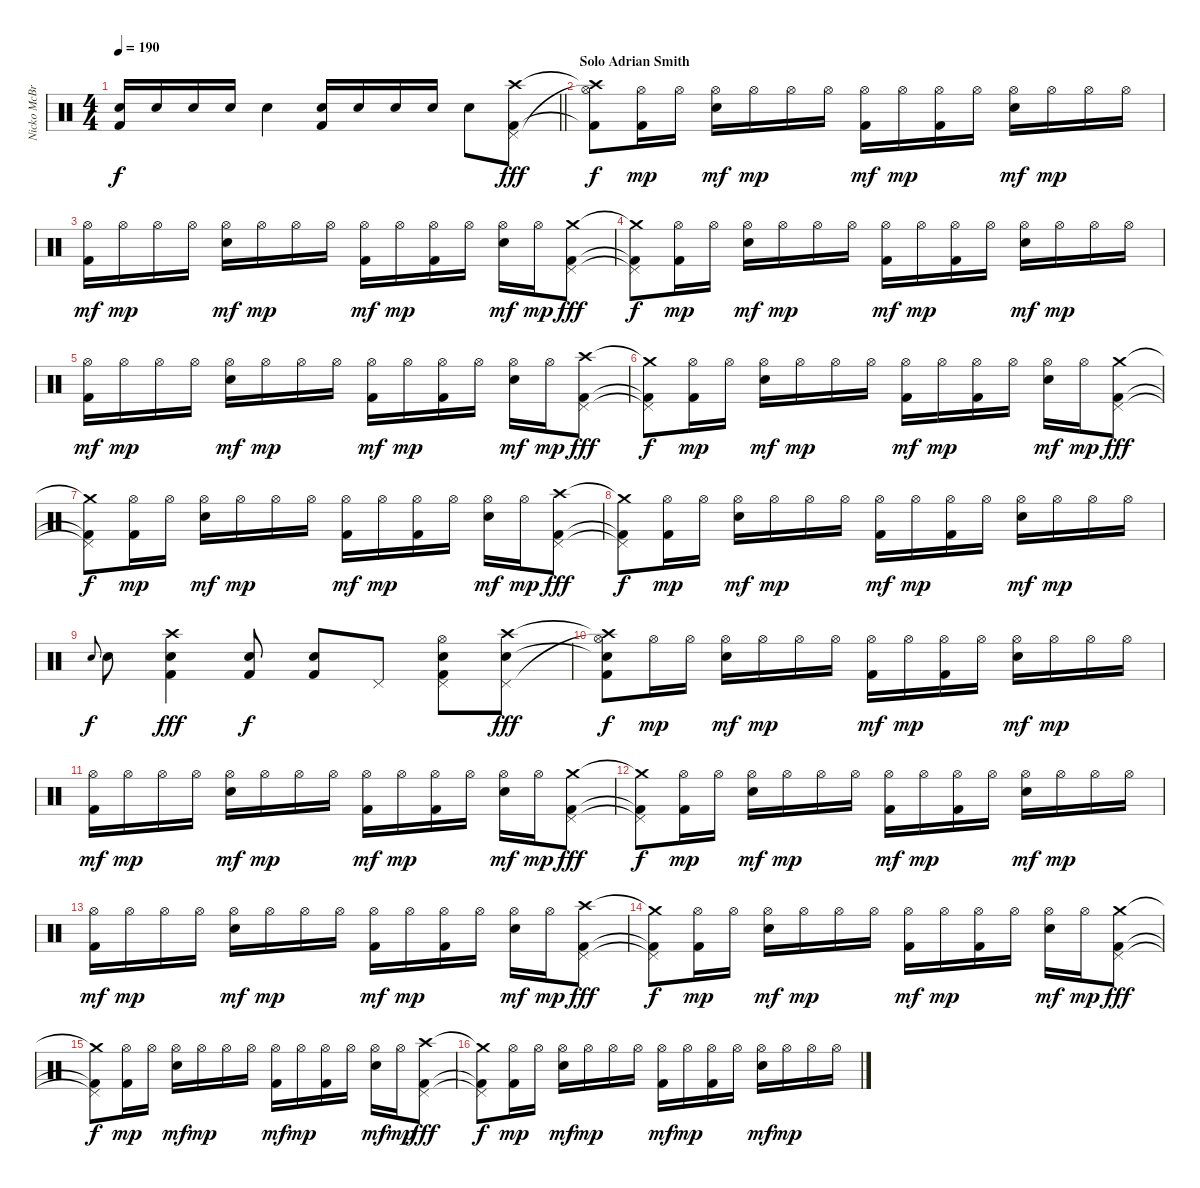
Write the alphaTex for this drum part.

\track ("Nicko McBrain" "Nicko McBr") {instrument percussion}
\staff {score}
\articulation defaults
\ts (4 4)
\tempo 190
\clef neutral
\barLineRight lightlight
\ks c
("Snare (hit) 2" "Kick (hit) 2").16{dy f} "Snare (hit) 2".16 "Snare (hit) 2".16 "Snare (hit) 2".16 "Snare (hit) 2".4 ("Snare (hit) 2" "Kick (hit) 2").16 "Snare (hit) 2".16 "Snare (hit) 2".16 "Snare (hit) 2".16 "Snare (hit) 2".8 ("Pedal Hi-Hat (hit)" "Crash high (hit)" "Kick (hit) 2").8{dy fff} |
\section ("" "Solo Adrian Smith")
("Hi-Hat (open)"{t} "Crash high (hit)"{t} "Kick (hit) 2"{t}).8{dy f} ("Hi-Hat (open)" "Kick (hit) 2").16{dy mp} "Hi-Hat (open)".16 ("Hi-Hat (open)" "Snare (hit) 2").16{dy mf} "Hi-Hat (open)".16{dy mp} "Hi-Hat (open)".16 "Hi-Hat (open)".16 ("Hi-Hat (open)" "Kick (hit) 2").16{dy mf} "Hi-Hat (open)".16{dy mp} ("Hi-Hat (open)" "Kick (hit) 2").16 "Hi-Hat (open)".16 ("Hi-Hat (open)" "Snare (hit) 2").16{dy mf} "Hi-Hat (open)".16{dy mp} "Hi-Hat (open)".16 "Hi-Hat (open)".16 |
("Hi-Hat (open)" "Kick (hit) 2").16{dy mf} "Hi-Hat (open)".16{dy mp} "Hi-Hat (open)".16 "Hi-Hat (open)".16 ("Hi-Hat (open)" "Snare (hit) 2").16{dy mf} "Hi-Hat (open)".16{dy mp} "Hi-Hat (open)".16 "Hi-Hat (open)".16 ("Hi-Hat (open)" "Kick (hit) 2").16{dy mf} "Hi-Hat (open)".16{dy mp} ("Hi-Hat (open)" "Kick (hit) 2").16 "Hi-Hat (open)".16 ("Hi-Hat (open)" "Snare (hit) 2").16{dy mf} "Hi-Hat (open)".16{dy mp} ("Pedal Hi-Hat (hit)" "Crash medium (hit)" "Kick (hit) 2").8{dy fff} |
("Pedal Hi-Hat (hit)"{t} "Crash medium (hit)"{t} "Kick (hit) 2"{t}).8{dy f} ("Hi-Hat (open)" "Kick (hit) 2").16{dy mp} "Hi-Hat (open)".16 ("Hi-Hat (open)" "Snare (hit) 2").16{dy mf} "Hi-Hat (open)".16{dy mp} "Hi-Hat (open)".16 "Hi-Hat (open)".16 ("Hi-Hat (open)" "Kick (hit) 2").16{dy mf} "Hi-Hat (open)".16{dy mp} ("Hi-Hat (open)" "Kick (hit) 2").16 "Hi-Hat (open)".16 ("Hi-Hat (open)" "Snare (hit) 2").16{dy mf} "Hi-Hat (open)".16{dy mp} "Hi-Hat (open)".16 "Hi-Hat (open)".16 |
("Hi-Hat (open)" "Kick (hit) 2").16{dy mf} "Hi-Hat (open)".16{dy mp} "Hi-Hat (open)".16 "Hi-Hat (open)".16 ("Hi-Hat (open)" "Snare (hit) 2").16{dy mf} "Hi-Hat (open)".16{dy mp} "Hi-Hat (open)".16 "Hi-Hat (open)".16 ("Hi-Hat (open)" "Kick (hit) 2").16{dy mf} "Hi-Hat (open)".16{dy mp} ("Hi-Hat (open)" "Kick (hit) 2").16 "Hi-Hat (open)".16 ("Hi-Hat (open)" "Snare (hit) 2").16{dy mf} "Hi-Hat (open)".16{dy mp} ("Pedal Hi-Hat (hit)" "Crash high (hit)" "Kick (hit) 2").8{dy fff} |
("Pedal Hi-Hat (hit)"{t} "Crash medium (hit)"{t} "Kick (hit) 2"{t}).8{dy f} ("Hi-Hat (open)" "Kick (hit) 2").16{dy mp} "Hi-Hat (open)".16 ("Hi-Hat (open)" "Snare (hit) 2").16{dy mf} "Hi-Hat (open)".16{dy mp} "Hi-Hat (open)".16 "Hi-Hat (open)".16 ("Hi-Hat (open)" "Kick (hit) 2").16{dy mf} "Hi-Hat (open)".16{dy mp} ("Hi-Hat (open)" "Kick (hit) 2").16 "Hi-Hat (open)".16 ("Hi-Hat (open)" "Snare (hit) 2").16{dy mf} "Hi-Hat (open)".16{dy mp} ("Pedal Hi-Hat (hit)" "Crash medium (hit)" "Kick (hit) 2").8{dy fff} |
("Pedal Hi-Hat (hit)"{t} "Crash medium (hit)"{t} "Kick (hit) 2"{t}).8{dy f} ("Hi-Hat (open)" "Kick (hit) 2").16{dy mp} "Hi-Hat (open)".16 ("Hi-Hat (open)" "Snare (hit) 2").16{dy mf} "Hi-Hat (open)".16{dy mp} "Hi-Hat (open)".16 "Hi-Hat (open)".16 ("Hi-Hat (open)" "Kick (hit) 2").16{dy mf} "Hi-Hat (open)".16{dy mp} ("Hi-Hat (open)" "Kick (hit) 2").16 "Hi-Hat (open)".16 ("Hi-Hat (open)" "Snare (hit) 2").16{dy mf} "Hi-Hat (open)".16{dy mp} ("Pedal Hi-Hat (hit)" "Crash high (hit)" "Kick (hit) 2").8{dy fff} |
("Pedal Hi-Hat (hit)"{t} "Crash medium (hit)"{t} "Kick (hit) 2"{t}).8{dy f} ("Hi-Hat (open)" "Kick (hit) 2").16{dy mp} "Hi-Hat (open)".16 ("Hi-Hat (open)" "Snare (hit) 2").16{dy mf} "Hi-Hat (open)".16{dy mp} "Hi-Hat (open)".16 "Hi-Hat (open)".16 ("Hi-Hat (open)" "Kick (hit) 2").16{dy mf} "Hi-Hat (open)".16{dy mp} ("Hi-Hat (open)" "Kick (hit) 2").16 "Hi-Hat (open)".16 ("Hi-Hat (open)" "Snare (hit) 2").16{dy mf} "Hi-Hat (open)".16{dy mp} "Hi-Hat (open)".16 "Hi-Hat (open)".16 |
"Snare (hit) 2".8{gr onbeat dy f} "Snare (hit) 2".8 ("Snare (hit) 2" "Crash high (hit)" "Kick (hit) 2").4{dy fff} ("Snare (hit) 2" "Kick (hit) 2").8{dy f} ("Snare (hit) 2" "Kick (hit) 2").8 "Pedal Hi-Hat (hit)".8 ("Pedal Hi-Hat (hit)" "Snare (hit) 2" "Hi-Hat (open)" "Kick (hit) 2").8 ("Pedal Hi-Hat (hit)" "Snare (hit) 2" "Crash high (hit)").8{dy fff} |
("Hi-Hat (open)"{t} "Snare (hit) 2"{t} "Crash high (hit)"{t} "Kick (hit) 2").8{dy f} "Hi-Hat (open)".16{dy mp} "Hi-Hat (open)".16 ("Hi-Hat (open)" "Snare (hit) 2").16{dy mf} "Hi-Hat (open)".16{dy mp} "Hi-Hat (open)".16 "Hi-Hat (open)".16 ("Hi-Hat (open)" "Kick (hit) 2").16{dy mf} "Hi-Hat (open)".16{dy mp} ("Hi-Hat (open)" "Kick (hit) 2").16 "Hi-Hat (open)".16 ("Hi-Hat (open)" "Snare (hit) 2").16{dy mf} "Hi-Hat (open)".16{dy mp} "Hi-Hat (open)".16 "Hi-Hat (open)".16 |
("Hi-Hat (open)" "Kick (hit) 2").16{dy mf} "Hi-Hat (open)".16{dy mp} "Hi-Hat (open)".16 "Hi-Hat (open)".16 ("Hi-Hat (open)" "Snare (hit) 2").16{dy mf} "Hi-Hat (open)".16{dy mp} "Hi-Hat (open)".16 "Hi-Hat (open)".16 ("Hi-Hat (open)" "Kick (hit) 2").16{dy mf} "Hi-Hat (open)".16{dy mp} ("Hi-Hat (open)" "Kick (hit) 2").16 "Hi-Hat (open)".16 ("Hi-Hat (open)" "Snare (hit) 2").16{dy mf} "Hi-Hat (open)".16{dy mp} ("Pedal Hi-Hat (hit)" "Crash medium (hit)" "Kick (hit) 2").8{dy fff} |
("Pedal Hi-Hat (hit)"{t} "Crash medium (hit)"{t} "Kick (hit) 2"{t}).8{dy f} ("Hi-Hat (open)" "Kick (hit) 2").16{dy mp} "Hi-Hat (open)".16 ("Hi-Hat (open)" "Snare (hit) 2").16{dy mf} "Hi-Hat (open)".16{dy mp} "Hi-Hat (open)".16 "Hi-Hat (open)".16 ("Hi-Hat (open)" "Kick (hit) 2").16{dy mf} "Hi-Hat (open)".16{dy mp} ("Hi-Hat (open)" "Kick (hit) 2").16 "Hi-Hat (open)".16 ("Hi-Hat (open)" "Snare (hit) 2").16{dy mf} "Hi-Hat (open)".16{dy mp} "Hi-Hat (open)".16 "Hi-Hat (open)".16 |
("Hi-Hat (open)" "Kick (hit) 2").16{dy mf} "Hi-Hat (open)".16{dy mp} "Hi-Hat (open)".16 "Hi-Hat (open)".16 ("Hi-Hat (open)" "Snare (hit) 2").16{dy mf} "Hi-Hat (open)".16{dy mp} "Hi-Hat (open)".16 "Hi-Hat (open)".16 ("Hi-Hat (open)" "Kick (hit) 2").16{dy mf} "Hi-Hat (open)".16{dy mp} ("Hi-Hat (open)" "Kick (hit) 2").16 "Hi-Hat (open)".16 ("Hi-Hat (open)" "Snare (hit) 2").16{dy mf} "Hi-Hat (open)".16{dy mp} ("Pedal Hi-Hat (hit)" "Crash high (hit)" "Kick (hit) 2").8{dy fff} |
("Pedal Hi-Hat (hit)"{t} "Crash medium (hit)"{t} "Kick (hit) 2"{t}).8{dy f} ("Hi-Hat (open)" "Kick (hit) 2").16{dy mp} "Hi-Hat (open)".16 ("Hi-Hat (open)" "Snare (hit) 2").16{dy mf} "Hi-Hat (open)".16{dy mp} "Hi-Hat (open)".16 "Hi-Hat (open)".16 ("Hi-Hat (open)" "Kick (hit) 2").16{dy mf} "Hi-Hat (open)".16{dy mp} ("Hi-Hat (open)" "Kick (hit) 2").16 "Hi-Hat (open)".16 ("Hi-Hat (open)" "Snare (hit) 2").16{dy mf} "Hi-Hat (open)".16{dy mp} ("Pedal Hi-Hat (hit)" "Crash medium (hit)" "Kick (hit) 2").8{dy fff} |
("Pedal Hi-Hat (hit)"{t} "Crash medium (hit)"{t} "Kick (hit) 2"{t}).8{dy f} ("Hi-Hat (open)" "Kick (hit) 2").16{dy mp} "Hi-Hat (open)".16 ("Hi-Hat (open)" "Snare (hit) 2").16{dy mf} "Hi-Hat (open)".16{dy mp} "Hi-Hat (open)".16 "Hi-Hat (open)".16 ("Hi-Hat (open)" "Kick (hit) 2").16{dy mf} "Hi-Hat (open)".16{dy mp} ("Hi-Hat (open)" "Kick (hit) 2").16 "Hi-Hat (open)".16 ("Hi-Hat (open)" "Snare (hit) 2").16{dy mf} "Hi-Hat (open)".16{dy mp} ("Pedal Hi-Hat (hit)" "Crash high (hit)" "Kick (hit) 2").8{dy fff} |
("Pedal Hi-Hat (hit)"{t} "Crash medium (hit)"{t} "Kick (hit) 2"{t}).8{dy f} ("Hi-Hat (open)" "Kick (hit) 2").16{dy mp} "Hi-Hat (open)".16 ("Hi-Hat (open)" "Snare (hit) 2").16{dy mf} "Hi-Hat (open)".16{dy mp} "Hi-Hat (open)".16 "Hi-Hat (open)".16 ("Hi-Hat (open)" "Kick (hit) 2").16{dy mf} "Hi-Hat (open)".16{dy mp} ("Hi-Hat (open)" "Kick (hit) 2").16 "Hi-Hat (open)".16 ("Hi-Hat (open)" "Snare (hit) 2").16{dy mf} "Hi-Hat (open)".16{dy mp} "Hi-Hat (open)".16 "Hi-Hat (open)".16
